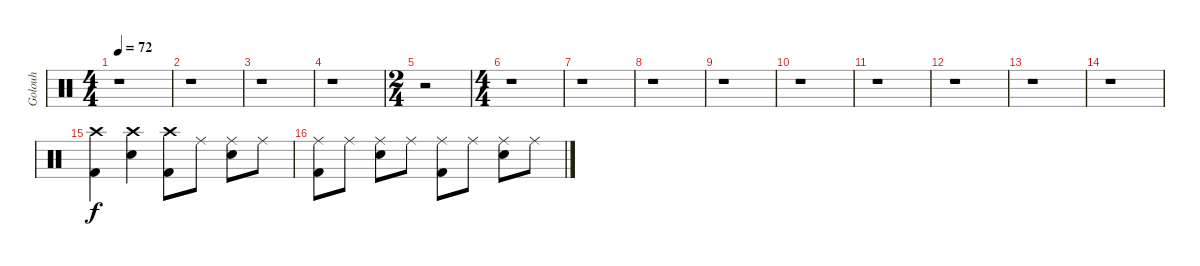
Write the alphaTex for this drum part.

\track ("Golouh" "Golouh") {instrument percussion}
\staff {score}
\articulation defaults
\ts (4 4)
\tempo 72
\clef neutral
\ks c
r.1{dy f} |
r.1 |
r.1 |
r.1 |
\ts (2 4)
r.2 |
\ts (4 4)
r.1 |
r.1 |
r.1 |
r.1 |
r.1 |
r.1 |
r.1 |
r.1 |
r.1 |
("Crash high (hit)" "Kick (hit) 2").4 ("Crash high (hit)" "Snare (hit) 2").4 ("Crash high (hit)" "Kick (hit) 2").8 "Ride (middle)".8 ("Ride (middle)" "Snare (hit) 2").8 "Ride (middle)".8 |
("Ride (middle)" "Kick (hit) 2").8 "Ride (middle)".8 ("Ride (middle)" "Snare (hit) 2").8 "Ride (middle)".8 ("Ride (middle)" "Kick (hit) 2").8 "Ride (middle)".8 ("Ride (middle)" "Snare (hit) 2").8 "Ride (middle)".8
